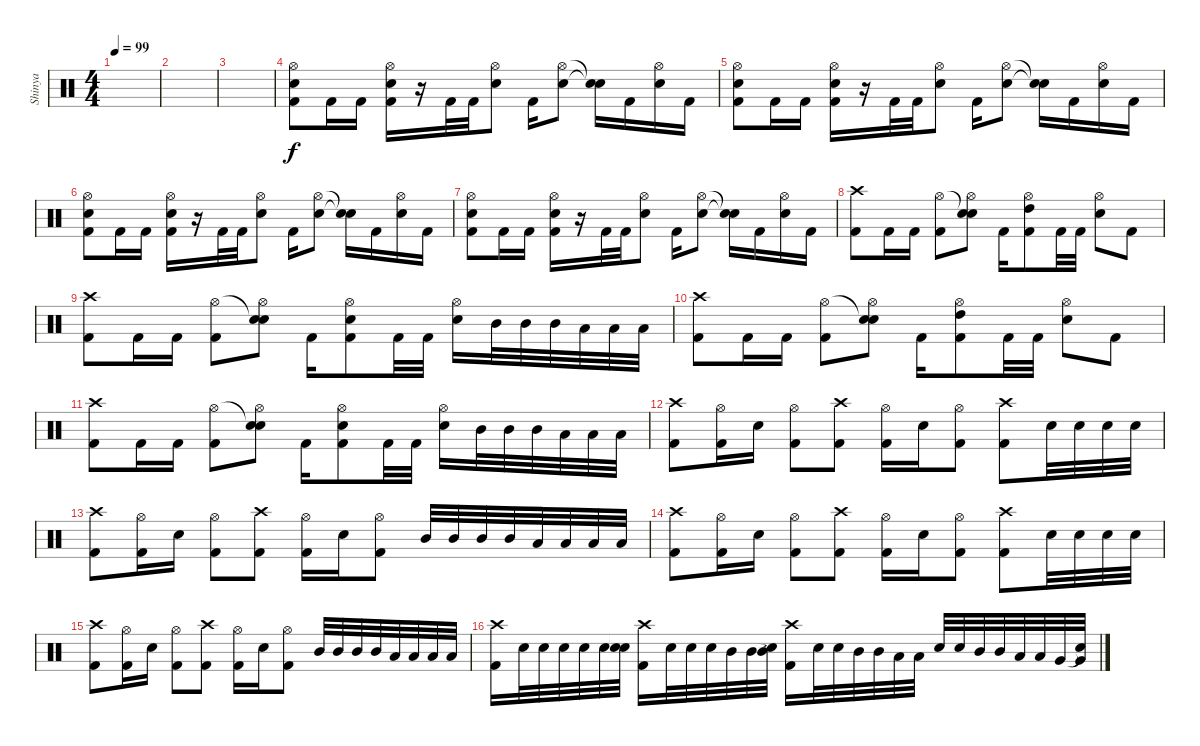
\track ("Shinya" "Shinya") {instrument percussion}
\staff {score}
\articulation defaults
\ts (4 4)
\tempo 99
\clef neutral
\ks c
|
|
|
("Hi-Hat (open)" "Snare (hit) 2" "Kick (hit) 2").8 "Kick (hit) 2".16 "Kick (hit) 2".16 ("Hi-Hat (open)" "Snare (hit) 2" "Kick (hit) 2").16 r.16 "Kick (hit) 2".32 "Kick (hit) 2".32 ("Hi-Hat (open)" "Snare (hit) 2").8 "Kick (hit) 2".16 ("Hi-Hat (open)" "Snare (hit) 2").8 ("Snare (hit)"{t} "Snare (hit)"{t}).16 "Kick (hit) 2".16 ("Hi-Hat (open)" "Snare (hit) 2").16 "Kick (hit) 2".16 |
("Hi-Hat (open)" "Snare (hit) 2" "Kick (hit) 2").8 "Kick (hit) 2".16 "Kick (hit) 2".16 ("Hi-Hat (open)" "Snare (hit) 2" "Kick (hit) 2").16 r.16 "Kick (hit) 2".32 "Kick (hit) 2".32 ("Hi-Hat (open)" "Snare (hit) 2").8 "Kick (hit) 2".16 ("Hi-Hat (open)" "Snare (hit) 2").8 ("Snare (hit)"{t} "Snare (hit)"{t}).16 "Kick (hit) 2".16 ("Hi-Hat (open)" "Snare (hit) 2").16 "Kick (hit) 2".16 |
("Hi-Hat (open)" "Snare (hit) 2" "Kick (hit) 2").8 "Kick (hit) 2".16 "Kick (hit) 2".16 ("Hi-Hat (open)" "Snare (hit) 2" "Kick (hit) 2").16 r.16 "Kick (hit) 2".32 "Kick (hit) 2".32 ("Hi-Hat (open)" "Snare (hit) 2").8 "Kick (hit) 2".16 ("Hi-Hat (open)" "Snare (hit) 2").8 ("Snare (hit)"{t} "Snare (hit)"{t}).16 "Kick (hit) 2".16 ("Hi-Hat (open)" "Snare (hit) 2").16 "Kick (hit) 2".16 |
("Hi-Hat (open)" "Snare (hit) 2" "Kick (hit) 2").8 "Kick (hit) 2".16 "Kick (hit) 2".16 ("Hi-Hat (open)" "Snare (hit) 2" "Kick (hit) 2").16 r.16 "Kick (hit) 2".32 "Kick (hit) 2".32 ("Hi-Hat (open)" "Snare (hit) 2").8 "Kick (hit) 2".16 ("Hi-Hat (open)" "Snare (hit) 2").8 ("Snare (hit)"{t} "Snare (hit)"{t}).16 "Kick (hit) 2".16 ("Hi-Hat (open)" "Snare (hit) 2").16 "Kick (hit) 2".16 |
("Crash high (hit)" "Kick (hit) 2").8 "Kick (hit) 2".16 "Kick (hit) 2".16 ("Hi-Hat (open)" "Kick (hit) 2").8 ("Snare (hit)"{t} "Hi-Hat (open)" "Snare (hit) 2").8 "Kick (hit) 2".16 ("Hi-Hat (open)" "High Tom (hit)" "Kick (hit) 2").8 "Kick (hit) 2".32 "Kick (hit) 2".32 ("Hi-Hat (open)" "Snare (hit) 2").8 "Kick (hit) 2".8 |
("Crash high (hit)" "Kick (hit) 2").8 "Kick (hit) 2".16 "Kick (hit) 2".16 ("Hi-Hat (open)" "Kick (hit) 2").8 ("Snare (hit)"{t} "Hi-Hat (open)" "Snare (hit) 2").8 "Kick (hit) 2".16 ("Hi-Hat (open)" "Snare (hit) 2" "Kick (hit) 2").8 "Kick (hit) 2".32 "Kick (hit) 2".32 ("Hi-Hat (open)" "Snare (hit) 2").16 "Mid Tom (hit)".32 "Mid Tom (hit)".32 "Mid Tom (hit)".32 "Low Tom (hit)".32 "Low Tom (hit)".32 "Low Tom (hit)".32 |
("Crash high (hit)" "Kick (hit) 2").8 "Kick (hit) 2".16 "Kick (hit) 2".16 ("Hi-Hat (open)" "Kick (hit) 2").8 ("Snare (hit)"{t} "Hi-Hat (open)" "Snare (hit) 2").8 "Kick (hit) 2".16 ("Hi-Hat (open)" "High Tom (hit)" "Kick (hit) 2").8 "Kick (hit) 2".32 "Kick (hit) 2".32 ("Hi-Hat (open)" "Snare (hit) 2").8 "Kick (hit) 2".8 |
("Crash high (hit)" "Kick (hit) 2").8 "Kick (hit) 2".16 "Kick (hit) 2".16 ("Hi-Hat (open)" "Kick (hit) 2").8 ("Snare (hit)"{t} "Hi-Hat (open)" "Snare (hit) 2").8 "Kick (hit) 2".16 ("Hi-Hat (open)" "Snare (hit) 2" "Kick (hit) 2").8 "Kick (hit) 2".32 "Kick (hit) 2".32 ("Hi-Hat (open)" "Snare (hit) 2").16 "Mid Tom (hit)".32 "Mid Tom (hit)".32 "Mid Tom (hit)".32 "Low Tom (hit)".32 "Low Tom (hit)".32 "Low Tom (hit)".32 |
("Crash high (hit)" "Kick (hit) 2").8 ("Hi-Hat (open)" "Kick (hit) 2").16 "Snare (hit) 2".16 ("Hi-Hat (open)" "Kick (hit) 2").8 ("Crash high (hit)" "Kick (hit) 2").8 ("Hi-Hat (open)" "Kick (hit) 2").16 "Snare (hit) 2".16 ("Hi-Hat (open)" "Kick (hit) 2").8 ("Crash high (hit)" "Kick (hit) 2").8 "Snare (hit) 2".32 "Snare (hit) 2".32 "Snare (hit) 2".32 "Snare (hit) 2".32 |
("Crash high (hit)" "Kick (hit) 2").8 ("Hi-Hat (open)" "Kick (hit) 2").16 "Snare (hit) 2".16 ("Hi-Hat (open)" "Kick (hit) 2").8 ("Crash high (hit)" "Kick (hit) 2").8 ("Hi-Hat (open)" "Kick (hit) 2").16 "Snare (hit) 2".16 ("Hi-Hat (open)" "Kick (hit) 2").8 "Mid Tom (hit)".32 "Mid Tom (hit)".32 "Mid Tom (hit)".32 "Mid Tom (hit)".32 "Low Tom (hit)".32 "Low Tom (hit)".32 "Low Tom (hit)".32 "Low Tom (hit)".32 |
("Crash high (hit)" "Kick (hit) 2").8 ("Hi-Hat (open)" "Kick (hit) 2").16 "Snare (hit) 2".16 ("Hi-Hat (open)" "Kick (hit) 2").8 ("Crash high (hit)" "Kick (hit) 2").8 ("Hi-Hat (open)" "Kick (hit) 2").16 "Snare (hit) 2".16 ("Hi-Hat (open)" "Kick (hit) 2").8 ("Crash high (hit)" "Kick (hit) 2").8 "Snare (hit) 2".32 "Snare (hit) 2".32 "Snare (hit) 2".32 "Snare (hit) 2".32 |
("Crash high (hit)" "Kick (hit) 2").8 ("Hi-Hat (open)" "Kick (hit) 2").16 "Snare (hit) 2".16 ("Hi-Hat (open)" "Kick (hit) 2").8 ("Crash high (hit)" "Kick (hit) 2").8 ("Hi-Hat (open)" "Kick (hit) 2").16 "Snare (hit) 2".16 ("Hi-Hat (open)" "Kick (hit) 2").8 "Mid Tom (hit)".32 "Mid Tom (hit)".32 "Mid Tom (hit)".32 "Mid Tom (hit)".32 "Low Tom (hit)".32 "Low Tom (hit)".32 "Low Tom (hit)".32 "Low Tom (hit)".32 |
("Crash high (hit)" "Kick (hit) 2").16 "Snare (hit) 2".32 "Snare (hit) 2".32 "Snare (hit) 2".32 "Snare (hit) 2".32 "Snare (hit) 2".32 ("Snare (hit)"{t} "Snare (hit) 2").32 ("Crash high (hit)" "Kick (hit) 2").16 "Snare (hit) 2".32 "Snare (hit) 2".32 "Snare (hit) 2".32 "Mid Tom (hit)".32 "Mid Tom (hit)".32 ("Snare (hit)"{t} "Mid Tom (hit)").32 ("Crash high (hit)" "Kick (hit) 2").16 "Snare (hit) 2".32 "Snare (hit) 2".32 "Mid Tom (hit)".32 "Mid Tom (hit)".32 "Low Tom (hit)".32 "Low Tom (hit)".32 "Snare (hit) 2".32 "Snare (hit) 2".32 "Mid Tom (hit)".32 "Mid Tom (hit)".32 "Low Tom (hit)".32 "Low Tom (hit)".32 "Very Low Tom (hit)".32 ("Snare (hit)"{t} "Very Low Tom (hit)").32
